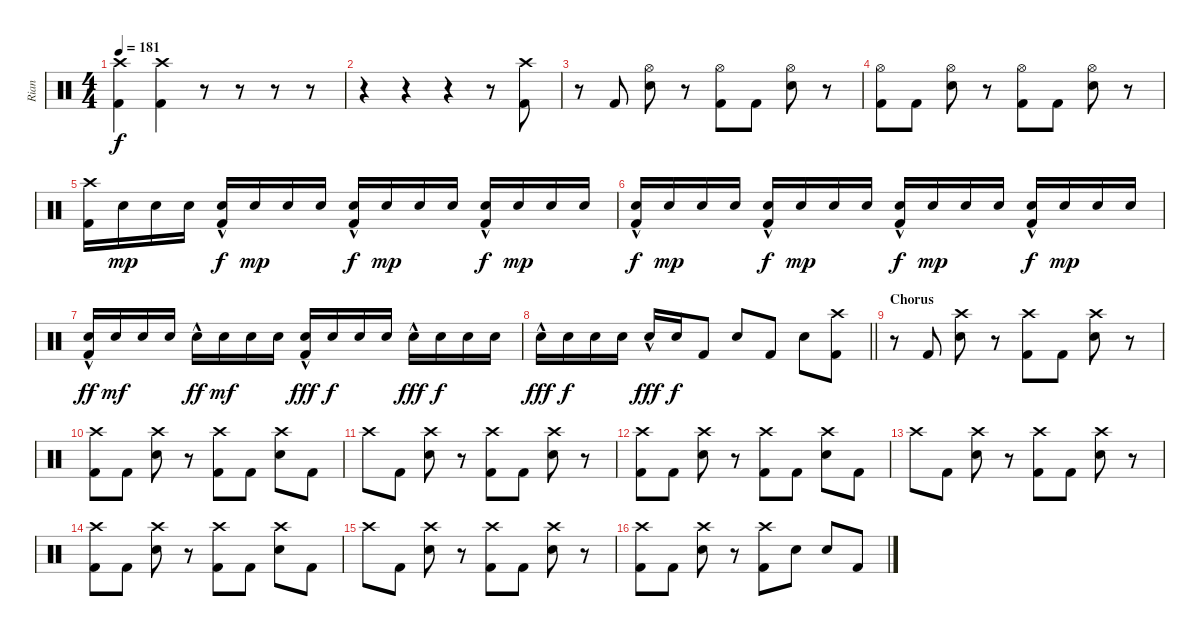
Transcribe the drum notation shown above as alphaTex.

\track ("Rian" "Rian") {instrument percussion bank 255}
\staff {score}
\articulation defaults
\ts (4 4)
\tempo 181
\clef neutral
\ks c
("Crash high (hit)"{t} "Kick (hit) 2"{t}).4{dy f} ("Crash high (hit)" "Kick (hit) 2").4 r.8 r.8 r.8 r.8 |
r.4 r.4 r.4 r.8 ("Crash high (hit)" "Kick (hit) 2").8 |
r.8 "Kick (hit) 2".8 ("Hi-Hat (open)" "Electric Snare (hit)").8 r.8 ("Hi-Hat (open)" "Kick (hit) 2").8 "Kick (hit) 2".8 ("Hi-Hat (open)" "Electric Snare (hit)").8 r.8 |
("Hi-Hat (open)" "Kick (hit) 2").8 "Kick (hit) 2".8 ("Hi-Hat (open)" "Electric Snare (hit)").8 r.8 ("Hi-Hat (open)" "Kick (hit) 2").8 "Kick (hit) 2".8 ("Hi-Hat (open)" "Electric Snare (hit)").8 r.8 |
("Crash high (hit)" "Kick (hit) 2").16 "Electric Snare (hit)".16{dy mp} "Electric Snare (hit)".16 "Electric Snare (hit)".16 ("Electric Snare (hit)"{hac} "Kick (hit) 2").16{dy f} "Electric Snare (hit)".16{dy mp} "Electric Snare (hit)".16 "Electric Snare (hit)".16 ("Electric Snare (hit)"{hac} "Kick (hit) 2").16{dy f} "Electric Snare (hit)".16{dy mp} "Electric Snare (hit)".16 "Electric Snare (hit)".16 ("Electric Snare (hit)"{hac} "Kick (hit) 2").16{dy f} "Electric Snare (hit)".16{dy mp} "Electric Snare (hit)".16 "Electric Snare (hit)".16 |
("Electric Snare (hit)"{hac} "Kick (hit) 2").16{dy f} "Electric Snare (hit)".16{dy mp} "Electric Snare (hit)".16 "Electric Snare (hit)".16 ("Electric Snare (hit)"{hac} "Kick (hit) 2").16{dy f} "Electric Snare (hit)".16{dy mp} "Electric Snare (hit)".16 "Electric Snare (hit)".16 ("Electric Snare (hit)"{hac} "Kick (hit) 2").16{dy f} "Electric Snare (hit)".16{dy mp} "Electric Snare (hit)".16 "Electric Snare (hit)".16 ("Electric Snare (hit)"{hac} "Kick (hit) 2").16{dy f} "Electric Snare (hit)".16{dy mp} "Electric Snare (hit)".16 "Electric Snare (hit)".16 |
("Electric Snare (hit)"{hac} "Kick (hit) 2").16{dy ff} "Electric Snare (hit)".16{dy mf} "Electric Snare (hit)".16 "Electric Snare (hit)".16 "Electric Snare (hit)"{hac}.16{dy ff} "Electric Snare (hit)".16{dy mf} "Electric Snare (hit)".16 "Electric Snare (hit)".16 ("Electric Snare (hit)"{hac} "Kick (hit) 2").16{dy fff} "Electric Snare (hit)".16{dy f} "Electric Snare (hit)".16 "Electric Snare (hit)".16 "Electric Snare (hit)"{hac}.16{dy fff} "Electric Snare (hit)".16{dy f} "Electric Snare (hit)".16 "Electric Snare (hit)".16 |
\barLineRight lightlight "Electric Snare (hit)"{hac}.16{dy fff} "Electric Snare (hit)".16{dy f} "Electric Snare (hit)".16 "Electric Snare (hit)".16 "Electric Snare (hit)"{hac}.16{dy fff} "Electric Snare (hit)".16{dy f} "Kick (hit) 2".8 "Electric Snare (hit)".8 "Kick (hit) 2".8 "Electric Snare (hit)".8
("Crash high (hit)" "Kick (hit) 2").8 |
\section ("" "Chorus")
r.8 "Kick (hit) 2".8 ("Crash high (hit)" "Electric Snare (hit)").8 r.8 ("Crash high (hit)" "Kick (hit) 2").8 "Kick (hit) 2".8 ("Crash high (hit)" "Electric Snare (hit)").8 r.8 |
("Crash high (hit)" "Kick (hit) 2").8 "Kick (hit) 2".8 ("Crash high (hit)" "Electric Snare (hit)").8 r.8 ("Crash high (hit)" "Kick (hit) 2").8 "Kick (hit) 2".8 ("Crash high (hit)" "Electric Snare (hit)").8 "Kick (hit) 2".8 |
"Crash high (hit)".8 "Kick (hit) 2".8 ("Crash high (hit)" "Electric Snare (hit)").8 r.8 ("Crash high (hit)" "Kick (hit) 2").8 "Kick (hit) 2".8 ("Crash high (hit)" "Electric Snare (hit)").8 r.8 |
("Crash high (hit)" "Kick (hit) 2").8 "Kick (hit) 2".8 ("Crash high (hit)" "Electric Snare (hit)").8 r.8 ("Crash high (hit)" "Kick (hit) 2").8 "Kick (hit) 2".8 ("Crash high (hit)" "Electric Snare (hit)").8 "Kick (hit) 2".8 |
"Crash high (hit)".8 "Kick (hit) 2".8 ("Crash high (hit)" "Electric Snare (hit)").8 r.8 ("Crash high (hit)" "Kick (hit) 2").8 "Kick (hit) 2".8 ("Crash high (hit)" "Electric Snare (hit)").8 r.8 |
("Crash high (hit)" "Kick (hit) 2").8 "Kick (hit) 2".8 ("Crash high (hit)" "Electric Snare (hit)").8 r.8 ("Crash high (hit)" "Kick (hit) 2").8 "Kick (hit) 2".8 ("Crash high (hit)" "Electric Snare (hit)").8 "Kick (hit) 2".8 |
"Crash high (hit)".8 "Kick (hit) 2".8 ("Crash high (hit)" "Electric Snare (hit)").8 r.8 ("Crash high (hit)" "Kick (hit) 2").8 "Kick (hit) 2".8 ("Crash high (hit)" "Electric Snare (hit)").8 r.8 |
("Crash high (hit)" "Kick (hit) 2").8 "Kick (hit) 2".8 ("Crash high (hit)" "Electric Snare (hit)").8 r.8 ("Crash high (hit)" "Kick (hit) 2").8 "Electric Snare (hit)".8 "Electric Snare (hit)".8 "Kick (hit) 2".8
